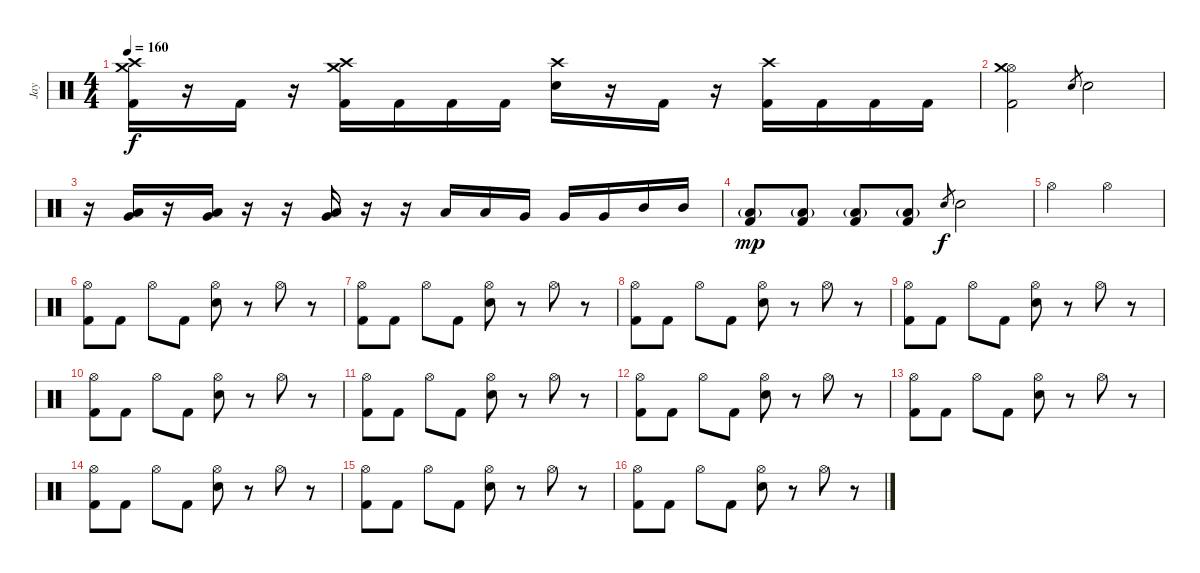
\track ("Jay" "Jay") {instrument percussion}
\staff {score}
\articulation defaults
\ts (4 4)
\tempo 160
\clef neutral
\ks c
("Crash high (hit)" "Crash medium (hit)" "Kick (hit) 2").16{dy f} r.16 "Kick (hit) 2".16 r.16 ("Crash high (hit)" "Crash medium (hit)" "Kick (hit) 2").16 "Kick (hit) 2".16 "Kick (hit) 2".16 "Kick (hit) 2".16 ("Crash high (hit)" "Electric Snare (hit)").16 r.16 "Kick (hit) 2".16 r.16 ("Crash high (hit)" "Kick (hit) 2").16 "Kick (hit) 2".16 "Kick (hit) 2".16 "Kick (hit) 2".16 |
("Hi-Hat (open)" "Crash medium (hit)" "Kick (hit) 2").2 "Electric Snare (hit)".8{gr} "Electric Snare (hit)".2 |
r.16 ("Very Low Tom (hit)" "Low Tom (hit)").16 r.16 ("Very Low Tom (hit)" "Low Tom (hit)").16 r.16 r.16 ("Very Low Tom (hit)" "Low Tom (hit)").16 r.16 r.16 "Low Tom (hit)".16 "Low Tom (hit)".16 "Very Low Tom (hit)".16 "Very Low Tom (hit)".16 "Very Low Tom (hit)".16 "Mid Tom (hit)".16 "Mid Tom (hit)".16 |
("Low Tom (hit)"{g} "Kick (hit) 2").8{dy mp} ("Low Tom (hit)"{g} "Kick (hit) 2").8 ("Low Tom (hit)"{g} "Kick (hit) 2").8 ("Low Tom (hit)"{g} "Kick (hit) 2").8 "Electric Snare (hit)".8{gr dy f} "Electric Snare (hit)".2 |
"Hi-Hat (open)".2 "Hi-Hat (open)".2 |
("Hi-Hat (open)" "Kick (hit) 2").8 "Kick (hit) 2".8 "Hi-Hat (open)".8 "Kick (hit) 2".8 ("Hi-Hat (open)" "Electric Snare (hit)").8 r.8 "Hi-Hat (open)".8 r.8 |
("Hi-Hat (open)" "Kick (hit) 2").8 "Kick (hit) 2".8 "Hi-Hat (open)".8 "Kick (hit) 2".8 ("Hi-Hat (open)" "Electric Snare (hit)").8 r.8 "Hi-Hat (open)".8 r.8 |
("Hi-Hat (open)" "Kick (hit) 2").8 "Kick (hit) 2".8 "Hi-Hat (open)".8 "Kick (hit) 2".8 ("Hi-Hat (open)" "Electric Snare (hit)").8 r.8 "Hi-Hat (open)".8 r.8 |
("Hi-Hat (open)" "Kick (hit) 2").8 "Kick (hit) 2".8 "Hi-Hat (open)".8 "Kick (hit) 2".8 ("Hi-Hat (open)" "Electric Snare (hit)").8 r.8 "Hi-Hat (open)".8 r.8 |
("Hi-Hat (open)" "Kick (hit) 2").8 "Kick (hit) 2".8 "Hi-Hat (open)".8 "Kick (hit) 2".8 ("Hi-Hat (open)" "Electric Snare (hit)").8 r.8 "Hi-Hat (open)".8 r.8 |
("Hi-Hat (open)" "Kick (hit) 2").8 "Kick (hit) 2".8 "Hi-Hat (open)".8 "Kick (hit) 2".8 ("Hi-Hat (open)" "Electric Snare (hit)").8 r.8 "Hi-Hat (open)".8 r.8 |
("Hi-Hat (open)" "Kick (hit) 2").8 "Kick (hit) 2".8 "Hi-Hat (open)".8 "Kick (hit) 2".8 ("Hi-Hat (open)" "Electric Snare (hit)").8 r.8 "Hi-Hat (open)".8 r.8 |
("Hi-Hat (open)" "Kick (hit) 2").8 "Kick (hit) 2".8 "Hi-Hat (open)".8 "Kick (hit) 2".8 ("Hi-Hat (open)" "Electric Snare (hit)").8 r.8 "Hi-Hat (open)".8 r.8 |
("Hi-Hat (open)" "Kick (hit) 2").8 "Kick (hit) 2".8 "Hi-Hat (open)".8 "Kick (hit) 2".8 ("Hi-Hat (open)" "Electric Snare (hit)").8 r.8 "Hi-Hat (open)".8 r.8 |
("Hi-Hat (open)" "Kick (hit) 2").8 "Kick (hit) 2".8 "Hi-Hat (open)".8 "Kick (hit) 2".8 ("Hi-Hat (open)" "Electric Snare (hit)").8 r.8 "Hi-Hat (open)".8 r.8 |
("Hi-Hat (open)" "Kick (hit) 2").8 "Kick (hit) 2".8 "Hi-Hat (open)".8 "Kick (hit) 2".8 ("Hi-Hat (open)" "Electric Snare (hit)").8 r.8 "Hi-Hat (open)".8 r.8
